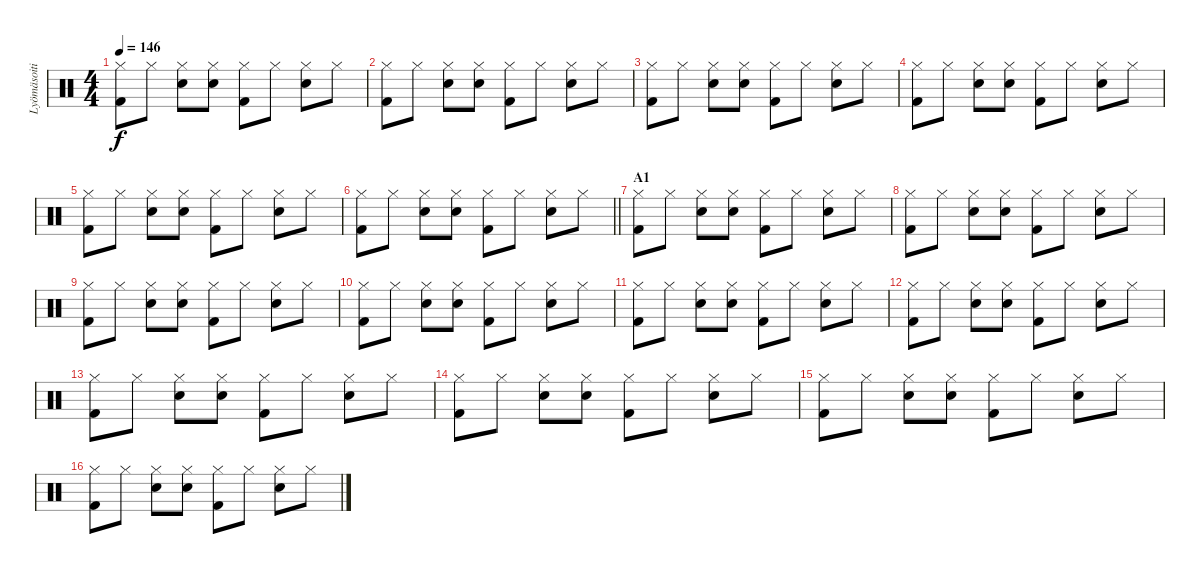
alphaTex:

\track ("Lyömäsoitin" "Lyömäsoiti") {instrument percussion}
\staff {score}
\articulation defaults
\ts (4 4)
\tempo 146
\clef neutral
\ks c
("Hi-Hat (closed)" "Kick (hit) 2").8{dy f} "Hi-Hat (closed)".8 ("Hi-Hat (closed)" "Electric Snare (hit)").8 ("Hi-Hat (closed)" "Electric Snare (hit)").8 ("Hi-Hat (closed)" "Kick (hit) 2").8 "Hi-Hat (closed)".8 ("Hi-Hat (closed)" "Electric Snare (hit)").8 "Hi-Hat (closed)".8 |
("Hi-Hat (closed)" "Kick (hit) 2").8 "Hi-Hat (closed)".8 ("Hi-Hat (closed)" "Electric Snare (hit)").8 ("Hi-Hat (closed)" "Electric Snare (hit)").8 ("Hi-Hat (closed)" "Kick (hit) 2").8 "Hi-Hat (closed)".8 ("Hi-Hat (closed)" "Electric Snare (hit)").8 "Hi-Hat (closed)".8 |
("Hi-Hat (closed)" "Kick (hit) 2").8 "Hi-Hat (closed)".8 ("Hi-Hat (closed)" "Electric Snare (hit)").8 ("Hi-Hat (closed)" "Electric Snare (hit)").8 ("Hi-Hat (closed)" "Kick (hit) 2").8 "Hi-Hat (closed)".8 ("Hi-Hat (closed)" "Electric Snare (hit)").8 "Hi-Hat (closed)".8 |
("Hi-Hat (closed)" "Kick (hit) 2").8 "Hi-Hat (closed)".8 ("Hi-Hat (closed)" "Electric Snare (hit)").8 ("Hi-Hat (closed)" "Electric Snare (hit)").8 ("Hi-Hat (closed)" "Kick (hit) 2").8 "Hi-Hat (closed)".8 ("Hi-Hat (closed)" "Electric Snare (hit)").8 "Hi-Hat (closed)".8 |
("Hi-Hat (closed)" "Kick (hit) 2").8 "Hi-Hat (closed)".8 ("Hi-Hat (closed)" "Electric Snare (hit)").8 ("Hi-Hat (closed)" "Electric Snare (hit)").8 ("Hi-Hat (closed)" "Kick (hit) 2").8 "Hi-Hat (closed)".8 ("Hi-Hat (closed)" "Electric Snare (hit)").8 "Hi-Hat (closed)".8 |
\barLineRight lightlight
("Hi-Hat (closed)" "Kick (hit) 2").8 "Hi-Hat (closed)".8 ("Hi-Hat (closed)" "Electric Snare (hit)").8 ("Hi-Hat (closed)" "Electric Snare (hit)").8 ("Hi-Hat (closed)" "Kick (hit) 2").8 "Hi-Hat (closed)".8 ("Hi-Hat (closed)" "Electric Snare (hit)").8 "Hi-Hat (closed)".8 |
\section ("" "A1")
("Hi-Hat (closed)" "Kick (hit) 2").8 "Hi-Hat (closed)".8 ("Hi-Hat (closed)" "Electric Snare (hit)").8 ("Hi-Hat (closed)" "Electric Snare (hit)").8 ("Hi-Hat (closed)" "Kick (hit) 2").8 "Hi-Hat (closed)".8 ("Hi-Hat (closed)" "Electric Snare (hit)").8 "Hi-Hat (closed)".8 |
("Hi-Hat (closed)" "Kick (hit) 2").8 "Hi-Hat (closed)".8 ("Hi-Hat (closed)" "Electric Snare (hit)").8 ("Hi-Hat (closed)" "Electric Snare (hit)").8 ("Hi-Hat (closed)" "Kick (hit) 2").8 "Hi-Hat (closed)".8 ("Hi-Hat (closed)" "Electric Snare (hit)").8 "Hi-Hat (closed)".8 |
("Hi-Hat (closed)" "Kick (hit) 2").8 "Hi-Hat (closed)".8 ("Hi-Hat (closed)" "Electric Snare (hit)").8 ("Hi-Hat (closed)" "Electric Snare (hit)").8 ("Hi-Hat (closed)" "Kick (hit) 2").8 "Hi-Hat (closed)".8 ("Hi-Hat (closed)" "Electric Snare (hit)").8 "Hi-Hat (closed)".8 |
("Hi-Hat (closed)" "Kick (hit) 2").8 "Hi-Hat (closed)".8 ("Hi-Hat (closed)" "Electric Snare (hit)").8 ("Hi-Hat (closed)" "Electric Snare (hit)").8 ("Hi-Hat (closed)" "Kick (hit) 2").8 "Hi-Hat (closed)".8 ("Hi-Hat (closed)" "Electric Snare (hit)").8 "Hi-Hat (closed)".8 |
("Hi-Hat (closed)" "Kick (hit) 2").8 "Hi-Hat (closed)".8 ("Hi-Hat (closed)" "Electric Snare (hit)").8 ("Hi-Hat (closed)" "Electric Snare (hit)").8 ("Hi-Hat (closed)" "Kick (hit) 2").8 "Hi-Hat (closed)".8 ("Hi-Hat (closed)" "Electric Snare (hit)").8 "Hi-Hat (closed)".8 |
("Hi-Hat (closed)" "Kick (hit) 2").8 "Hi-Hat (closed)".8 ("Hi-Hat (closed)" "Electric Snare (hit)").8 ("Hi-Hat (closed)" "Electric Snare (hit)").8 ("Hi-Hat (closed)" "Kick (hit) 2").8 "Hi-Hat (closed)".8 ("Hi-Hat (closed)" "Electric Snare (hit)").8 "Hi-Hat (closed)".8 |
("Hi-Hat (closed)" "Kick (hit) 2").8 "Hi-Hat (closed)".8 ("Hi-Hat (closed)" "Electric Snare (hit)").8 ("Hi-Hat (closed)" "Electric Snare (hit)").8 ("Hi-Hat (closed)" "Kick (hit) 2").8 "Hi-Hat (closed)".8 ("Hi-Hat (closed)" "Electric Snare (hit)").8 "Hi-Hat (closed)".8 |
("Hi-Hat (closed)" "Kick (hit) 2").8 "Hi-Hat (closed)".8 ("Hi-Hat (closed)" "Electric Snare (hit)").8 ("Hi-Hat (closed)" "Electric Snare (hit)").8 ("Hi-Hat (closed)" "Kick (hit) 2").8 "Hi-Hat (closed)".8 ("Hi-Hat (closed)" "Electric Snare (hit)").8 "Hi-Hat (closed)".8 |
("Hi-Hat (closed)" "Kick (hit) 2").8 "Hi-Hat (closed)".8 ("Hi-Hat (closed)" "Electric Snare (hit)").8 ("Hi-Hat (closed)" "Electric Snare (hit)").8 ("Hi-Hat (closed)" "Kick (hit) 2").8 "Hi-Hat (closed)".8 ("Hi-Hat (closed)" "Electric Snare (hit)").8 "Hi-Hat (closed)".8 |
("Hi-Hat (closed)" "Kick (hit) 2").8 "Hi-Hat (closed)".8 ("Hi-Hat (closed)" "Electric Snare (hit)").8 ("Hi-Hat (closed)" "Electric Snare (hit)").8 ("Hi-Hat (closed)" "Kick (hit) 2").8 "Hi-Hat (closed)".8 ("Hi-Hat (closed)" "Electric Snare (hit)").8 "Hi-Hat (closed)".8
